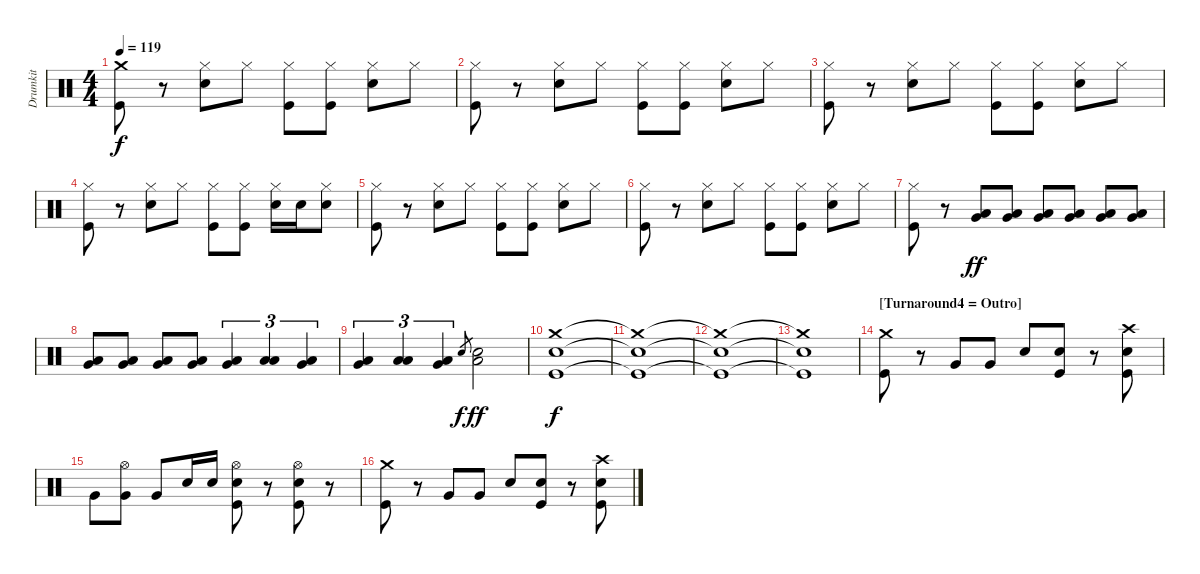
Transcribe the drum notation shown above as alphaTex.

\track ("Drumkit" "Drumkit") {instrument percussion}
\staff {score}
\articulation defaults
\ts (4 4)
\tempo 119
\clef neutral
\ks c
("Crash medium (hit)" "Kick (hit)").8{dy f} r.8 ("Hi-Hat (closed)" "Snare (hit) 2").8 "Hi-Hat (closed)".8 ("Hi-Hat (closed)" "Kick (hit)").8 ("Hi-Hat (closed)" "Kick (hit)").8 ("Hi-Hat (closed)" "Snare (hit) 2").8 "Hi-Hat (closed)".8 |
("Hi-Hat (closed)" "Kick (hit)").8 r.8 ("Hi-Hat (closed)" "Snare (hit) 2").8 "Hi-Hat (closed)".8 ("Hi-Hat (closed)" "Kick (hit)").8 ("Hi-Hat (closed)" "Kick (hit)").8 ("Hi-Hat (closed)" "Snare (hit) 2").8 "Hi-Hat (closed)".8 |
("Hi-Hat (closed)" "Kick (hit)").8 r.8 ("Hi-Hat (closed)" "Snare (hit) 2").8 "Hi-Hat (closed)".8 ("Hi-Hat (closed)" "Kick (hit)").8 ("Hi-Hat (closed)" "Kick (hit)").8 ("Hi-Hat (closed)" "Snare (hit) 2").8 "Hi-Hat (closed)".8 |
("Hi-Hat (closed)" "Kick (hit)").8 r.8 ("Hi-Hat (closed)" "Snare (hit) 2").8 "Hi-Hat (closed)".8 ("Hi-Hat (closed)" "Kick (hit)").8 ("Hi-Hat (closed)" "Kick (hit)").8 ("Hi-Hat (closed)" "Snare (hit) 2").16 "Snare (hit) 2".16 ("Hi-Hat (closed)" "Snare (hit) 2").8 |
("Hi-Hat (closed)" "Kick (hit)").8 r.8 ("Hi-Hat (closed)" "Snare (hit) 2").8 "Hi-Hat (closed)".8 ("Hi-Hat (closed)" "Kick (hit)").8 ("Hi-Hat (closed)" "Kick (hit)").8 ("Hi-Hat (closed)" "Snare (hit) 2").8 "Hi-Hat (closed)".8 |
("Hi-Hat (closed)" "Kick (hit)").8 r.8 ("Hi-Hat (closed)" "Snare (hit) 2").8 "Hi-Hat (closed)".8 ("Hi-Hat (closed)" "Kick (hit)").8 ("Hi-Hat (closed)" "Kick (hit)").8 ("Hi-Hat (closed)" "Snare (hit) 2").8 "Hi-Hat (closed)".8 |
("Kick (hit)" "Hi-Hat (closed)").8 r.8 ("Very Low Tom (hit)" "Low Floor Tom (hit)").8{dy ff} ("Very Low Tom (hit)" "Low Floor Tom (hit)").8 ("Very Low Tom (hit)" "Low Floor Tom (hit)").8 ("Very Low Tom (hit)" "Low Floor Tom (hit)").8 ("Very Low Tom (hit)" "Low Floor Tom (hit)").8 ("Very Low Tom (hit)" "Low Floor Tom (hit)").8 |
("Very Low Tom (hit)" "Low Floor Tom (hit)").8 ("Very Low Tom (hit)" "Low Floor Tom (hit)").8 ("Very Low Tom (hit)" "Low Floor Tom (hit)").8 ("Very Low Tom (hit)" "Low Floor Tom (hit)").8 ("Very Low Tom (hit)" "Low Floor Tom (hit)").4{tu (3 2)} ("Low Floor Tom (hit)" "Low Tom (hit)").4{tu (3 2)} ("Very Low Tom (hit)" "Low Floor Tom (hit)").4{tu (3 2)} |
("Very Low Tom (hit)" "Low Floor Tom (hit)").4{tu (3 2)} ("Low Floor Tom (hit)" "Low Tom (hit)").4{tu (3 2)} ("Very Low Tom (hit)" "Low Floor Tom (hit)").4{tu (3 2)} "Snare (hit)".8{gr dy f} ("Low Tom (hit)" "Snare (hit) 2").2{dy ff} |
("Crash medium (hit)" "Snare (hit) 2" "Kick (hit)").1{dy f} |
("Crash medium (hit)"{t} "Snare (hit) 2"{t} "Kick (hit)"{t}).1 |
("Crash medium (hit)"{t} "Snare (hit) 2"{t} "Kick (hit)"{t}).1 |
("Crash medium (hit)"{t} "Snare (hit) 2"{t} "Kick (hit)"{t}).1 |
\section ("" "[Turnaround4 = Outro]")
("Crash medium (hit)" "Kick (hit)").8 r.8 "Very Low Tom (hit)".8 "Very Low Tom (hit)".8 "Snare (hit) 2".8 ("Snare (hit) 2" "Kick (hit)").8 r.8 ("Crash high (hit)" "Snare (hit) 2" "Kick (hit)").8 |
"Very Low Tom (hit)".8 ("Hi-Hat (open)" "Very Low Tom (hit)").8 "Very Low Tom (hit)".8 "Snare (hit) 2".16 "Snare (hit) 2".16 ("Hi-Hat (open)" "Snare (hit) 2" "Kick (hit)").8 r.8 ("Hi-Hat (open)" "Snare (hit) 2" "Kick (hit)").8 r.8 |
("Crash medium (hit)" "Kick (hit)").8 r.8 "Very Low Tom (hit)".8 "Very Low Tom (hit)".8 "Snare (hit) 2".8 ("Snare (hit) 2" "Kick (hit)").8 r.8 ("Crash high (hit)" "Snare (hit) 2" "Kick (hit)").8
